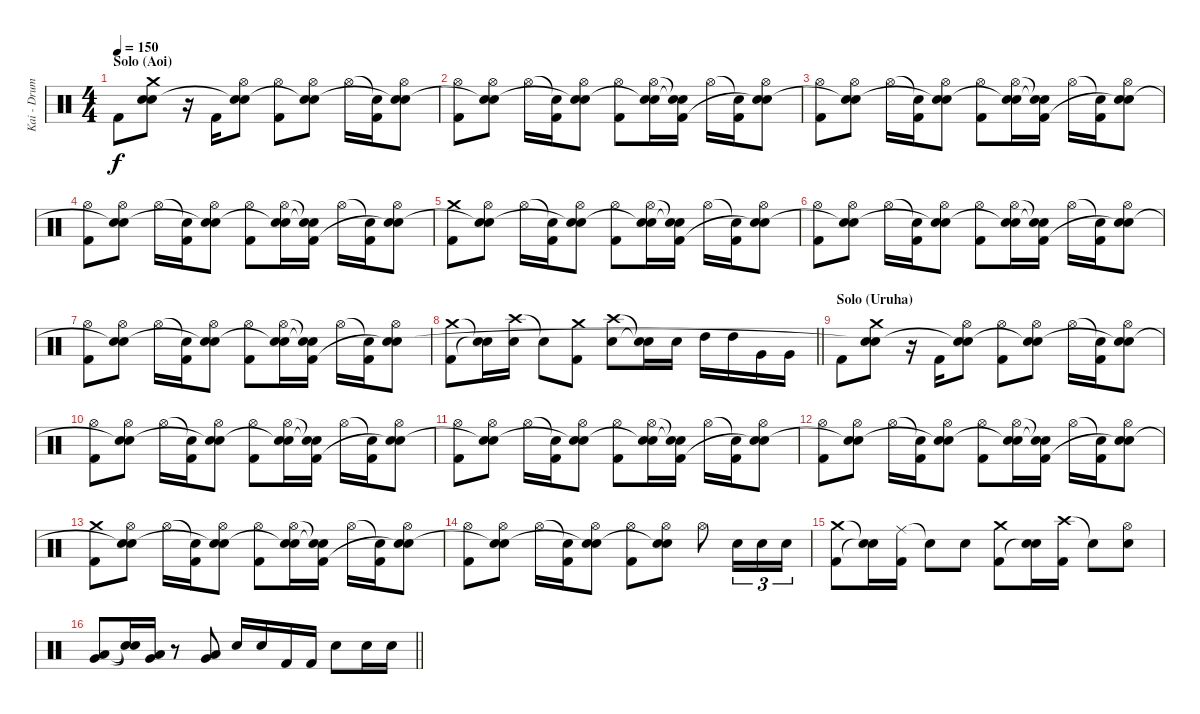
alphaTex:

\track ("Kai - Drums" "Kai - Drum") {instrument percussion}
\staff {score}
\articulation defaults
\ts (4 4)
\section ("" "Solo (Aoi)")
\tempo 150
\clef neutral
\ks c "Kick (hit) 2".8{dy f}
("Crash medium (hit)" "Snare (hit) 2" "Snare (hit)"{t}).8 r.16 "Kick (hit) 2".16 ("Hi-Hat (open)" "Snare (hit) 2" "Snare (hit)"{t}).8 ("Hi-Hat (open)" "Kick (hit) 2").8 ("Hi-Hat (open)" "Snare (hit) 2" "Snare (hit)"{t}).8 "Hi-Hat (open)".16 ("Snare (hit)"{t} "Kick (hit) 2").16 ("Hi-Hat (open)" "Snare (hit) 2" "Snare (hit)"{t}).8 |
("Hi-Hat (open)" "Kick (hit) 2").8 ("Hi-Hat (open)" "Snare (hit) 2" "Snare (hit)"{t}).8 "Hi-Hat (open)".16 ("Snare (hit)"{t} "Kick (hit) 2").16 ("Hi-Hat (open)" "Snare (hit) 2" "Snare (hit)"{t}).8 ("Hi-Hat (open)" "Kick (hit) 2").8 ("Hi-Hat (open)" "Snare (hit) 2" "Snare (hit)"{t}).16 ("Snare (hit)"{t} "Snare (hit)"{t} "Kick (hit) 2").16 "Hi-Hat (open)".16 ("Snare (hit)"{t} "Kick (hit) 2").16 ("Hi-Hat (open)" "Snare (hit) 2" "Snare (hit)"{t}).8 |
("Hi-Hat (open)" "Kick (hit) 2").8 ("Hi-Hat (open)" "Snare (hit) 2" "Snare (hit)"{t}).8 "Hi-Hat (open)".16 ("Snare (hit)"{t} "Kick (hit) 2").16 ("Hi-Hat (open)" "Snare (hit) 2" "Snare (hit)"{t}).8 ("Hi-Hat (open)" "Kick (hit) 2").8 ("Hi-Hat (open)" "Snare (hit) 2" "Snare (hit)"{t}).16 ("Snare (hit)"{t} "Snare (hit)"{t} "Kick (hit) 2").16 "Hi-Hat (open)".16 ("Snare (hit)"{t} "Kick (hit) 2").16 ("Hi-Hat (open)" "Snare (hit) 2" "Snare (hit)"{t}).8 |
("Hi-Hat (open)" "Kick (hit) 2").8 ("Hi-Hat (open)" "Snare (hit) 2" "Snare (hit)"{t}).8 "Hi-Hat (open)".16 ("Snare (hit)"{t} "Kick (hit) 2").16 ("Hi-Hat (open)" "Snare (hit) 2" "Snare (hit)"{t}).8 ("Hi-Hat (open)" "Kick (hit) 2").8 ("Hi-Hat (open)" "Snare (hit) 2" "Snare (hit)"{t}).16 ("Snare (hit)"{t} "Snare (hit)"{t} "Kick (hit) 2").16 "Hi-Hat (open)".16 ("Snare (hit)"{t} "Kick (hit) 2").16 ("Hi-Hat (open)" "Snare (hit) 2" "Snare (hit)"{t}).8 |
("Crash medium (hit)" "Kick (hit) 2").8 ("Hi-Hat (open)" "Snare (hit) 2" "Snare (hit)"{t}).8 "Hi-Hat (open)".16 ("Snare (hit)"{t} "Kick (hit) 2").16 ("Hi-Hat (open)" "Snare (hit) 2" "Snare (hit)"{t}).8 ("Hi-Hat (open)" "Kick (hit) 2").8 ("Hi-Hat (open)" "Snare (hit) 2" "Snare (hit)"{t}).16 ("Snare (hit)"{t} "Snare (hit)"{t} "Kick (hit) 2").16 "Hi-Hat (open)".16 ("Snare (hit)"{t} "Kick (hit) 2").16 ("Hi-Hat (open)" "Snare (hit) 2" "Snare (hit)"{t}).8 |
("Hi-Hat (open)" "Kick (hit) 2").8 ("Hi-Hat (open)" "Snare (hit) 2" "Snare (hit)"{t}).8 "Hi-Hat (open)".16 ("Snare (hit)"{t} "Kick (hit) 2").16 ("Hi-Hat (open)" "Snare (hit) 2" "Snare (hit)"{t}).8 ("Hi-Hat (open)" "Kick (hit) 2").8 ("Hi-Hat (open)" "Snare (hit) 2" "Snare (hit)"{t}).16 ("Snare (hit)"{t} "Snare (hit)"{t} "Kick (hit) 2").16 "Hi-Hat (open)".16 ("Snare (hit)"{t} "Kick (hit) 2").16 ("Hi-Hat (open)" "Snare (hit) 2" "Snare (hit)"{t}).8 |
("Hi-Hat (open)" "Kick (hit) 2").8 ("Hi-Hat (open)" "Snare (hit) 2" "Snare (hit)"{t}).8 "Hi-Hat (open)".16 ("Snare (hit)"{t} "Kick (hit) 2").16 ("Hi-Hat (open)" "Snare (hit) 2" "Snare (hit)"{t}).8 ("Hi-Hat (open)" "Kick (hit) 2").8 ("Hi-Hat (open)" "Snare (hit) 2" "Snare (hit)"{t}).16 ("Snare (hit)"{t} "Snare (hit)"{t} "Kick (hit) 2").16 "Hi-Hat (open)".16 ("Snare (hit)"{t} "Kick (hit) 2").16 ("Hi-Hat (open)" "Snare (hit) 2" "Snare (hit)"{t}).8 |
\barLineRight lightlight
("Crash medium (hit)" "Kick (hit) 2").8 ("Snare (hit)"{t} "Snare (hit)"{t}).16 ("Crash high (hit)" "Snare (hit) 2").16 "Snare (hit)"{t}.8 ("Crash medium (hit)" "Kick (hit) 2").8 ("Crash high (hit)" "Snare (hit) 2").8 ("Snare (hit)"{t} "Snare (hit)"{t}).16 "Snare (hit) 2".16 "High Tom (hit)".16 "High Tom (hit)".16 "Very Low Tom (hit)".16 "Very Low Tom (hit)".16 |
\section ("" "Solo (Uruha)")
"Kick (hit) 2".8 ("Crash medium (hit)" "Snare (hit) 2" "Snare (hit)"{t}).8 r.16 "Kick (hit) 2".16 ("Hi-Hat (open)" "Snare (hit) 2" "Snare (hit)"{t}).8 ("Hi-Hat (open)" "Kick (hit) 2").8 ("Hi-Hat (open)" "Snare (hit) 2" "Snare (hit)"{t}).8 "Hi-Hat (open)".16 ("Snare (hit)"{t} "Kick (hit) 2").16 ("Hi-Hat (open)" "Snare (hit) 2" "Snare (hit)"{t}).8 |
("Hi-Hat (open)" "Kick (hit) 2").8 ("Hi-Hat (open)" "Snare (hit) 2" "Snare (hit)"{t}).8 "Hi-Hat (open)".16 ("Snare (hit)"{t} "Kick (hit) 2").16 ("Hi-Hat (open)" "Snare (hit) 2" "Snare (hit)"{t}).8 ("Hi-Hat (open)" "Kick (hit) 2").8 ("Hi-Hat (open)" "Snare (hit) 2" "Snare (hit)"{t}).16 ("Snare (hit)"{t} "Snare (hit)"{t} "Kick (hit) 2").16 "Hi-Hat (open)".16 ("Snare (hit)"{t} "Kick (hit) 2").16 ("Hi-Hat (open)" "Snare (hit) 2" "Snare (hit)"{t}).8 |
("Hi-Hat (open)" "Kick (hit) 2").8 ("Hi-Hat (open)" "Snare (hit) 2" "Snare (hit)"{t}).8 "Hi-Hat (open)".16 ("Snare (hit)"{t} "Kick (hit) 2").16 ("Hi-Hat (open)" "Snare (hit) 2" "Snare (hit)"{t}).8 ("Hi-Hat (open)" "Kick (hit) 2").8 ("Hi-Hat (open)" "Snare (hit) 2" "Snare (hit)"{t}).16 ("Snare (hit)"{t} "Snare (hit)"{t} "Kick (hit) 2").16 "Hi-Hat (open)".16 ("Snare (hit)"{t} "Kick (hit) 2").16 ("Hi-Hat (open)" "Snare (hit) 2" "Snare (hit)"{t}).8 |
("Hi-Hat (open)" "Kick (hit) 2").8 ("Hi-Hat (open)" "Snare (hit) 2" "Snare (hit)"{t}).8 "Hi-Hat (open)".16 ("Snare (hit)"{t} "Kick (hit) 2").16 ("Hi-Hat (open)" "Snare (hit) 2" "Snare (hit)"{t}).8 ("Hi-Hat (open)" "Kick (hit) 2").8 ("Hi-Hat (open)" "Snare (hit) 2" "Snare (hit)"{t}).16 ("Snare (hit)"{t} "Snare (hit)"{t} "Kick (hit) 2").16 "Hi-Hat (open)".16 ("Snare (hit)"{t} "Kick (hit) 2").16 ("Hi-Hat (open)" "Snare (hit) 2" "Snare (hit)"{t}).8 |
("Crash medium (hit)" "Kick (hit) 2").8 ("Hi-Hat (open)" "Snare (hit) 2" "Snare (hit)"{t}).8 "Hi-Hat (open)".16 ("Snare (hit)"{t} "Kick (hit) 2").16 ("Hi-Hat (open)" "Snare (hit) 2" "Snare (hit)"{t}).8 ("Hi-Hat (open)" "Kick (hit) 2").8 ("Hi-Hat (open)" "Snare (hit) 2" "Snare (hit)"{t}).16 ("Snare (hit)"{t} "Snare (hit)"{t} "Kick (hit) 2").16 "Hi-Hat (open)".16 ("Snare (hit)"{t} "Kick (hit) 2").16 ("Hi-Hat (open)" "Snare (hit) 2" "Snare (hit)"{t}).8 |
("Hi-Hat (open)" "Kick (hit) 2").8 ("Hi-Hat (open)" "Snare (hit) 2" "Snare (hit)"{t}).8 "Hi-Hat (open)".16 ("Snare (hit)"{t} "Kick (hit) 2").16 ("Hi-Hat (open)" "Snare (hit) 2" "Snare (hit)"{t}).8 ("Hi-Hat (open)" "Kick (hit) 2").8 ("Hi-Hat (open)" "Snare (hit) 2" "Snare (hit)"{t}).8 "Hi-Hat (open)".8 "Snare (hit) 2".16{tu (3 2)} "Snare (hit) 2".16{tu (3 2)} "Snare (hit) 2".16{tu (3 2)} |
("Crash medium (hit)" "Kick (hit) 2").8 ("Snare (hit)"{t} "Snare (hit)"{t}).16 ("Ride (middle)" "Kick (hit) 2").16 "Snare (hit)"{t}.8 "Snare (hit) 2".8 ("Crash medium (hit)" "Kick (hit) 2").8 ("Snare (hit) 2" "Snare (hit)"{t}).16 ("Crash high (hit)" "Kick (hit) 2").16 "Snare (hit)"{t}.8 ("Hi-Hat (open)" "Snare (hit) 2").8 |
\barLineRight lightlight
("Low Tom (hit)" "Very Low Tom (hit)").8 ("Snare (hit)"{t} "Snare (hit)"{t}).16 ("Low Tom (hit)" "Very Low Tom (hit)").16 r.8 ("Low Tom (hit)" "Very Low Tom (hit)").8 "Snare (hit) 2".16 "Snare (hit) 2".16 "Kick (hit) 2".16 "Kick (hit) 2".16 "Snare (hit) 2".8 "Snare (hit) 2".16 "Snare (hit) 2".16
